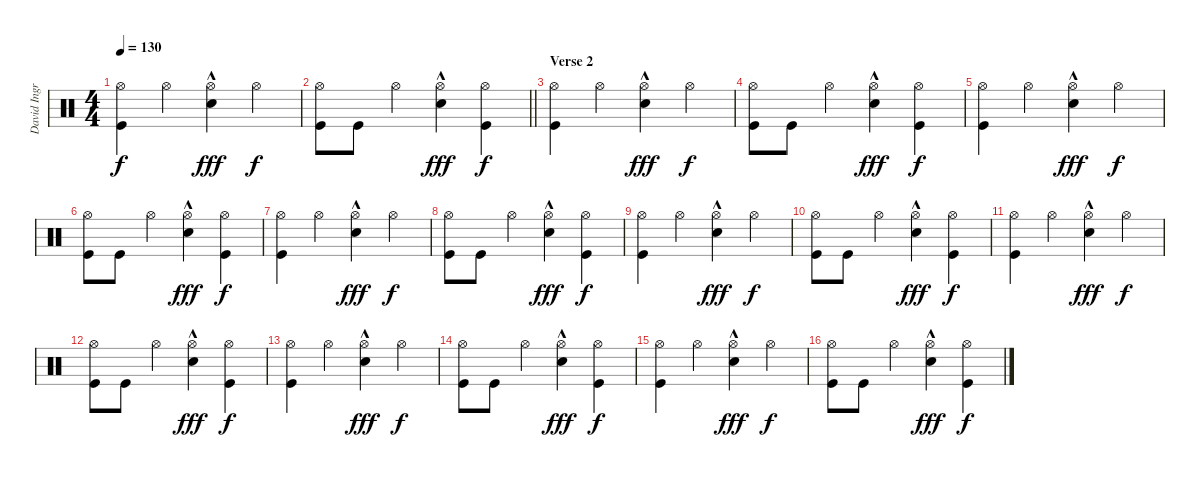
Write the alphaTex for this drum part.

\track ("David Ingraham" "David Ingr") {instrument percussion}
\staff {score}
\articulation defaults
\ts (4 4)
\tempo 130
\clef neutral
\ks c
("Hi-Hat (open)" "Kick (hit)").4{dy f} "Hi-Hat (open)".4 ("Hi-Hat (open)" "Snare (hit) 2"{hac}).4{dy fff} "Hi-Hat (open)".4{dy f} |
\barLineRight lightlight
("Hi-Hat (open)" "Kick (hit)").8 "Kick (hit)".8 "Hi-Hat (open)".4 ("Hi-Hat (open)" "Snare (hit) 2"{hac}).4{dy fff} ("Hi-Hat (open)" "Kick (hit)").4{dy f} |
\section ("" "Verse 2")
("Hi-Hat (open)" "Kick (hit)").4 "Hi-Hat (open)".4 ("Hi-Hat (open)" "Snare (hit) 2"{hac}).4{dy fff} "Hi-Hat (open)".4{dy f} |
("Hi-Hat (open)" "Kick (hit)").8 "Kick (hit)".8 "Hi-Hat (open)".4 ("Hi-Hat (open)" "Snare (hit) 2"{hac}).4{dy fff} ("Hi-Hat (open)" "Kick (hit)").4{dy f} |
("Hi-Hat (open)" "Kick (hit)").4 "Hi-Hat (open)".4 ("Hi-Hat (open)" "Snare (hit) 2"{hac}).4{dy fff} "Hi-Hat (open)".4{dy f} |
("Hi-Hat (open)" "Kick (hit)").8 "Kick (hit)".8 "Hi-Hat (open)".4 ("Hi-Hat (open)" "Snare (hit) 2"{hac}).4{dy fff} ("Hi-Hat (open)" "Kick (hit)").4{dy f} |
("Hi-Hat (open)" "Kick (hit)").4 "Hi-Hat (open)".4 ("Hi-Hat (open)" "Snare (hit) 2"{hac}).4{dy fff} "Hi-Hat (open)".4{dy f} |
("Hi-Hat (open)" "Kick (hit)").8 "Kick (hit)".8 "Hi-Hat (open)".4 ("Hi-Hat (open)" "Snare (hit) 2"{hac}).4{dy fff} ("Hi-Hat (open)" "Kick (hit)").4{dy f} |
("Hi-Hat (open)" "Kick (hit)").4 "Hi-Hat (open)".4 ("Hi-Hat (open)" "Snare (hit) 2"{hac}).4{dy fff} "Hi-Hat (open)".4{dy f} |
("Hi-Hat (open)" "Kick (hit)").8 "Kick (hit)".8 "Hi-Hat (open)".4 ("Hi-Hat (open)" "Snare (hit) 2"{hac}).4{dy fff} ("Hi-Hat (open)" "Kick (hit)").4{dy f} |
("Hi-Hat (open)" "Kick (hit)").4 "Hi-Hat (open)".4 ("Hi-Hat (open)" "Snare (hit) 2"{hac}).4{dy fff} "Hi-Hat (open)".4{dy f} |
("Hi-Hat (open)" "Kick (hit)").8 "Kick (hit)".8 "Hi-Hat (open)".4 ("Hi-Hat (open)" "Snare (hit) 2"{hac}).4{dy fff} ("Hi-Hat (open)" "Kick (hit)").4{dy f} |
("Hi-Hat (open)" "Kick (hit)").4 "Hi-Hat (open)".4 ("Hi-Hat (open)" "Snare (hit) 2"{hac}).4{dy fff} "Hi-Hat (open)".4{dy f} |
("Hi-Hat (open)" "Kick (hit)").8 "Kick (hit)".8 "Hi-Hat (open)".4 ("Hi-Hat (open)" "Snare (hit) 2"{hac}).4{dy fff} ("Hi-Hat (open)" "Kick (hit)").4{dy f} |
("Hi-Hat (open)" "Kick (hit)").4 "Hi-Hat (open)".4 ("Hi-Hat (open)" "Snare (hit) 2"{hac}).4{dy fff} "Hi-Hat (open)".4{dy f} |
("Hi-Hat (open)" "Kick (hit)").8 "Kick (hit)".8 "Hi-Hat (open)".4 ("Hi-Hat (open)" "Snare (hit) 2"{hac}).4{dy fff} ("Hi-Hat (open)" "Kick (hit)").4{dy f}
